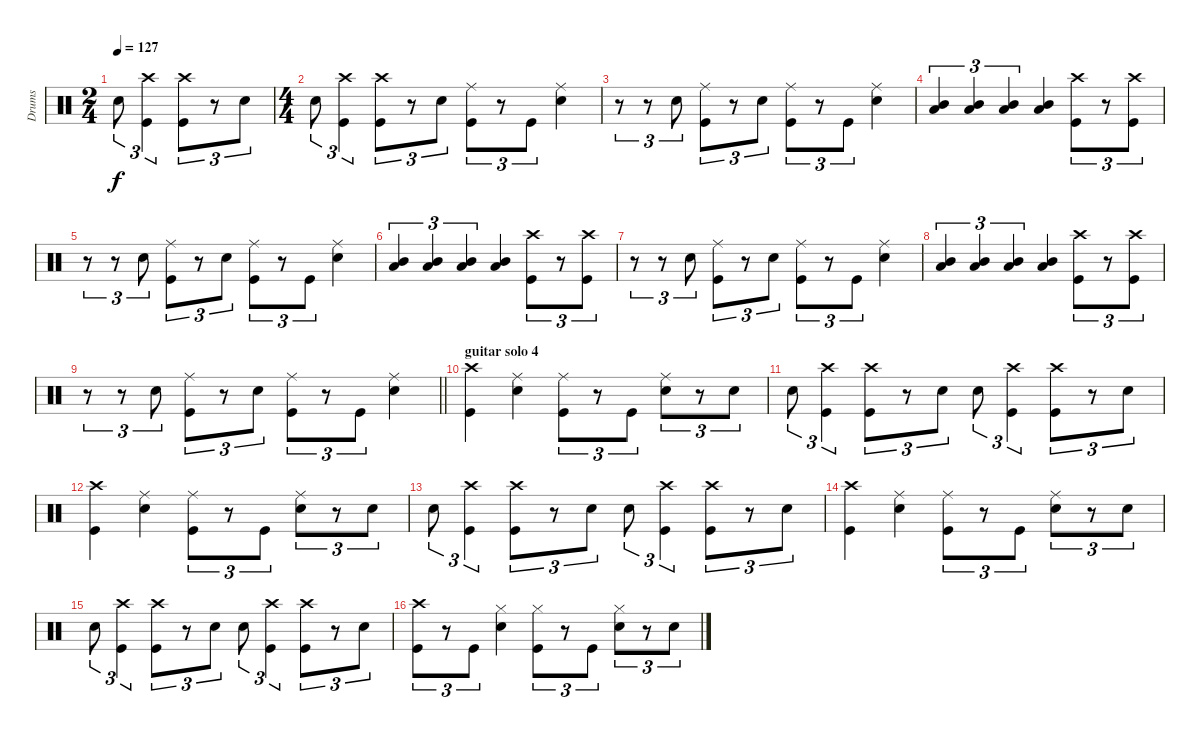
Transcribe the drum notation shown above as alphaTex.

\track ("Drums" "Drums") {instrument percussion}
\staff {score}
\articulation defaults
\ts (2 4)
\tempo 127
\clef neutral
\ks c "Snare (hit) 2".8{tu (3 2) dy f}
("Kick (hit)" "Crash high (hit)").4{tu (3 2)} ("Crash high (hit)" "Kick (hit)").8{tu (3 2)} r.8{tu (3 2)} "Snare (hit) 2".8{tu (3 2)} |
\ts (4 4)
"Snare (hit) 2".8{tu (3 2)} ("Crash high (hit)" "Kick (hit)").4{tu (3 2)} ("Crash high (hit)" "Kick (hit)").8{tu (3 2)} r.8{tu (3 2)} "Snare (hit) 2".8{tu (3 2)} ("Ride (middle)" "Kick (hit)").8{tu (3 2)} r.8{tu (3 2)} "Kick (hit)".8{tu (3 2)} ("Snare (hit) 2" "Ride (middle)").4 |
r.8{tu (3 2)} r.8{tu (3 2)} "Snare (hit) 2".8{tu (3 2)} ("Ride (middle)" "Kick (hit)").8{tu (3 2)} r.8{tu (3 2)} "Snare (hit) 2".8{tu (3 2)} ("Ride (middle)" "Kick (hit)").8{tu (3 2)} r.8{tu (3 2)} "Kick (hit)".8{tu (3 2)} ("Snare (hit) 2" "Ride (middle)").4 |
("Mid Tom (hit)" "Low Tom (hit)").4{tu (3 2)} ("Low Tom (hit)" "Mid Tom (hit)").4{tu (3 2)} ("Mid Tom (hit)" "Low Tom (hit)").4{tu (3 2)} ("Low Tom (hit)" "Mid Tom (hit)").4 ("Crash high (hit)" "Kick (hit)").8{tu (3 2)} r.8{tu (3 2)} ("Crash high (hit)" "Kick (hit)").8{tu (3 2)} |
r.8{tu (3 2)} r.8{tu (3 2)} "Snare (hit) 2".8{tu (3 2)} ("Ride (middle)" "Kick (hit)").8{tu (3 2)} r.8{tu (3 2)} "Snare (hit) 2".8{tu (3 2)} ("Ride (middle)" "Kick (hit)").8{tu (3 2)} r.8{tu (3 2)} "Kick (hit)".8{tu (3 2)} ("Snare (hit) 2" "Ride (middle)").4 |
("Mid Tom (hit)" "Low Tom (hit)").4{tu (3 2)} ("Low Tom (hit)" "Mid Tom (hit)").4{tu (3 2)} ("Mid Tom (hit)" "Low Tom (hit)").4{tu (3 2)} ("Low Tom (hit)" "Mid Tom (hit)").4 ("Crash high (hit)" "Kick (hit)").8{tu (3 2)} r.8{tu (3 2)} ("Crash high (hit)" "Kick (hit)").8{tu (3 2)} |
r.8{tu (3 2)} r.8{tu (3 2)} "Snare (hit) 2".8{tu (3 2)} ("Ride (middle)" "Kick (hit)").8{tu (3 2)} r.8{tu (3 2)} "Snare (hit) 2".8{tu (3 2)} ("Ride (middle)" "Kick (hit)").8{tu (3 2)} r.8{tu (3 2)} "Kick (hit)".8{tu (3 2)} ("Snare (hit) 2" "Ride (middle)").4 |
("Mid Tom (hit)" "Low Tom (hit)").4{tu (3 2)} ("Low Tom (hit)" "Mid Tom (hit)").4{tu (3 2)} ("Mid Tom (hit)" "Low Tom (hit)").4{tu (3 2)} ("Low Tom (hit)" "Mid Tom (hit)").4 ("Crash high (hit)" "Kick (hit)").8{tu (3 2)} r.8{tu (3 2)} ("Crash high (hit)" "Kick (hit)").8{tu (3 2)} |
\barLineRight lightlight
r.8{tu (3 2)} r.8{tu (3 2)} "Snare (hit) 2".8{tu (3 2)} ("Ride (middle)" "Kick (hit)").8{tu (3 2)} r.8{tu (3 2)} "Snare (hit) 2".8{tu (3 2)} ("Ride (middle)" "Kick (hit)").8{tu (3 2)} r.8{tu (3 2)} "Kick (hit)".8{tu (3 2)} ("Snare (hit) 2" "Ride (middle)").4 |
\section ("" "guitar solo 4")
("Crash high (hit)" "Kick (hit)").4 ("Snare (hit) 2" "Ride (middle)").4 ("Ride (middle)" "Kick (hit)").8{tu (3 2)} r.8{tu (3 2)} "Kick (hit)".8{tu (3 2)} ("Snare (hit) 2" "Ride (middle)").8{tu (3 2)} r.8{tu (3 2)} "Snare (hit) 2".8{tu (3 2)} |
"Snare (hit) 2".8{tu (3 2)} ("Crash high (hit)" "Kick (hit)").4{tu (3 2)} ("Crash high (hit)" "Kick (hit)").8{tu (3 2)} r.8{tu (3 2)} "Snare (hit) 2".8{tu (3 2)} "Snare (hit) 2".8{tu (3 2)} ("Crash high (hit)" "Kick (hit)").4{tu (3 2)} ("Crash high (hit)" "Kick (hit)").8{tu (3 2)} r.8{tu (3 2)} "Snare (hit) 2".8{tu (3 2)} |
("Crash high (hit)" "Kick (hit)").4 ("Snare (hit) 2" "Ride (middle)").4 ("Ride (middle)" "Kick (hit)").8{tu (3 2)} r.8{tu (3 2)} "Kick (hit)".8{tu (3 2)} ("Snare (hit) 2" "Ride (middle)").8{tu (3 2)} r.8{tu (3 2)} "Snare (hit) 2".8{tu (3 2)} |
"Snare (hit) 2".8{tu (3 2)} ("Crash high (hit)" "Kick (hit)").4{tu (3 2)} ("Crash high (hit)" "Kick (hit)").8{tu (3 2)} r.8{tu (3 2)} "Snare (hit) 2".8{tu (3 2)} "Snare (hit) 2".8{tu (3 2)} ("Crash high (hit)" "Kick (hit)").4{tu (3 2)} ("Crash high (hit)" "Kick (hit)").8{tu (3 2)} r.8{tu (3 2)} "Snare (hit) 2".8{tu (3 2)} |
("Crash high (hit)" "Kick (hit)").4 ("Snare (hit) 2" "Ride (middle)").4 ("Ride (middle)" "Kick (hit)").8{tu (3 2)} r.8{tu (3 2)} "Kick (hit)".8{tu (3 2)} ("Snare (hit) 2" "Ride (middle)").8{tu (3 2)} r.8{tu (3 2)} "Snare (hit) 2".8{tu (3 2)} |
"Snare (hit) 2".8{tu (3 2)} ("Crash high (hit)" "Kick (hit)").4{tu (3 2)} ("Crash high (hit)" "Kick (hit)").8{tu (3 2)} r.8{tu (3 2)} "Snare (hit) 2".8{tu (3 2)} "Snare (hit) 2".8{tu (3 2)} ("Crash high (hit)" "Kick (hit)").4{tu (3 2)} ("Crash high (hit)" "Kick (hit)").8{tu (3 2)} r.8{tu (3 2)} "Snare (hit) 2".8{tu (3 2)} |
("Kick (hit)" "Crash high (hit)").8{tu (3 2)} r.8{tu (3 2)} "Kick (hit)".8{tu (3 2)} ("Hi-Hat (closed)" "Snare (hit) 2").4 ("Hi-Hat (closed)" "Kick (hit)").8{tu (3 2)} r.8{tu (3 2)} "Kick (hit)".8{tu (3 2)} ("Snare (hit) 2" "Hi-Hat (closed)").8{tu (3 2)} r.8{tu (3 2)} "Snare (hit) 2".8{tu (3 2)}
